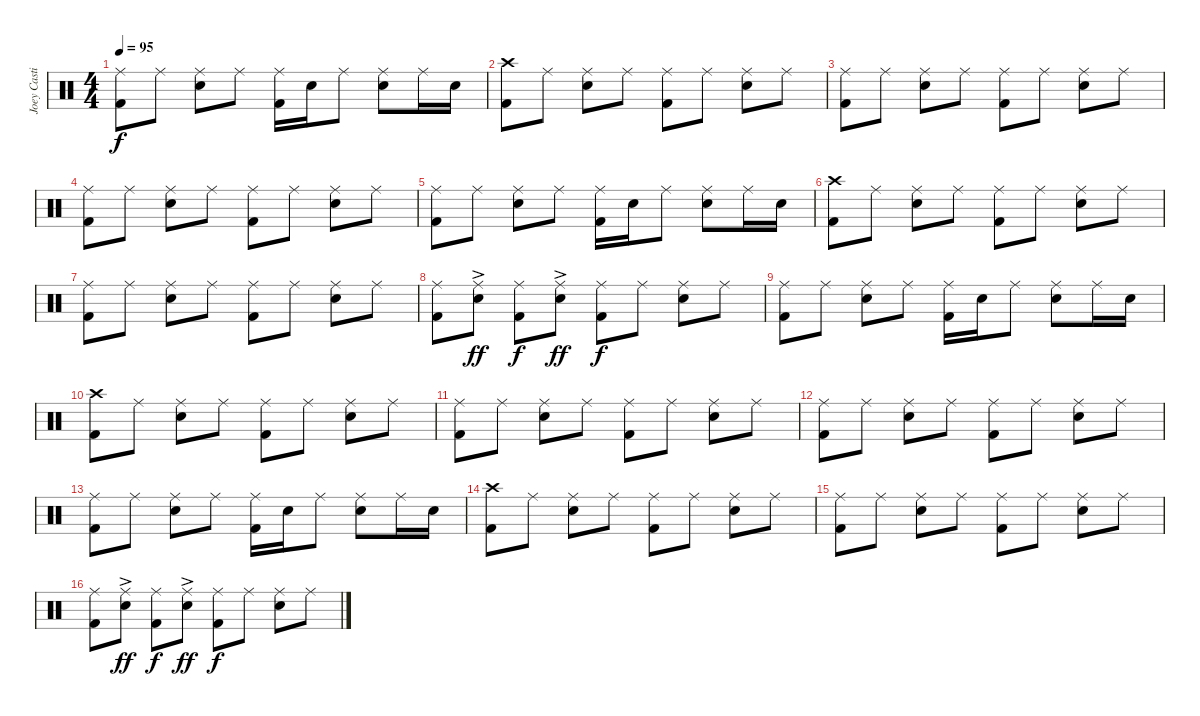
\track ("Joey Castillo" "Joey Casti") {instrument percussion}
\staff {score}
\articulation defaults
\ts (4 4)
\tempo 95
\clef neutral
\ks c
("Ride (middle)" "Kick (hit) 2").8{dy f} "Ride (middle)".8 ("Ride (middle)" "Snare (hit) 2").8 "Ride (middle)".8 ("Ride (middle)" "Kick (hit) 2").16 "Snare (hit) 2".16 "Ride (middle)".8 ("Ride (middle)" "Snare (hit) 2").8 "Ride (middle)".16 "Snare (hit) 2".16 |
("Crash high (hit)" "Kick (hit) 2").8 "Ride (middle)".8 ("Ride (middle)" "Snare (hit) 2").8 "Ride (middle)".8 ("Ride (middle)" "Kick (hit) 2").8 "Ride (middle)".8 ("Ride (middle)" "Snare (hit) 2").8 "Ride (middle)".8 |
("Ride (middle)" "Kick (hit) 2").8 "Ride (middle)".8 ("Ride (middle)" "Snare (hit) 2").8 "Ride (middle)".8 ("Ride (middle)" "Kick (hit) 2").8 "Ride (middle)".8 ("Ride (middle)" "Snare (hit) 2").8 "Ride (middle)".8 |
("Ride (middle)" "Kick (hit) 2").8 "Ride (middle)".8 ("Ride (middle)" "Snare (hit) 2").8 "Ride (middle)".8 ("Ride (middle)" "Kick (hit) 2").8 "Ride (middle)".8 ("Ride (middle)" "Snare (hit) 2").8 "Ride (middle)".8 |
("Ride (middle)" "Kick (hit) 2").8 "Ride (middle)".8 ("Ride (middle)" "Snare (hit) 2").8 "Ride (middle)".8 ("Ride (middle)" "Kick (hit) 2").16 "Snare (hit) 2".16 "Ride (middle)".8 ("Ride (middle)" "Snare (hit) 2").8 "Ride (middle)".16 "Snare (hit) 2".16 |
("Crash high (hit)" "Kick (hit) 2").8 "Ride (middle)".8 ("Ride (middle)" "Snare (hit) 2").8 "Ride (middle)".8 ("Ride (middle)" "Kick (hit) 2").8 "Ride (middle)".8 ("Ride (middle)" "Snare (hit) 2").8 "Ride (middle)".8 |
("Ride (middle)" "Kick (hit) 2").8 "Ride (middle)".8 ("Ride (middle)" "Snare (hit) 2").8 "Ride (middle)".8 ("Ride (middle)" "Kick (hit) 2").8 "Ride (middle)".8 ("Ride (middle)" "Snare (hit) 2").8 "Ride (middle)".8 |
("Ride (middle)" "Kick (hit) 2").8 ("Ride (middle)" "Snare (hit) 2"{ac}).8{dy ff} ("Ride (middle)" "Kick (hit) 2").8{dy f} ("Ride (middle)" "Snare (hit) 2"{ac}).8{dy ff} ("Ride (middle)" "Kick (hit) 2").8{dy f} "Ride (middle)".8 ("Ride (middle)" "Snare (hit) 2").8 "Ride (middle)".8 |
("Ride (middle)" "Kick (hit) 2").8 "Ride (middle)".8 ("Ride (middle)" "Snare (hit) 2").8 "Ride (middle)".8 ("Ride (middle)" "Kick (hit) 2").16 "Snare (hit) 2".16 "Ride (middle)".8 ("Ride (middle)" "Snare (hit) 2").8 "Ride (middle)".16 "Snare (hit) 2".16 |
("Crash high (hit)" "Kick (hit) 2").8 "Ride (middle)".8 ("Ride (middle)" "Snare (hit) 2").8 "Ride (middle)".8 ("Ride (middle)" "Kick (hit) 2").8 "Ride (middle)".8 ("Ride (middle)" "Snare (hit) 2").8 "Ride (middle)".8 |
("Ride (middle)" "Kick (hit) 2").8 "Ride (middle)".8 ("Ride (middle)" "Snare (hit) 2").8 "Ride (middle)".8 ("Ride (middle)" "Kick (hit) 2").8 "Ride (middle)".8 ("Ride (middle)" "Snare (hit) 2").8 "Ride (middle)".8 |
("Ride (middle)" "Kick (hit) 2").8 "Ride (middle)".8 ("Ride (middle)" "Snare (hit) 2").8 "Ride (middle)".8 ("Ride (middle)" "Kick (hit) 2").8 "Ride (middle)".8 ("Ride (middle)" "Snare (hit) 2").8 "Ride (middle)".8 |
("Ride (middle)" "Kick (hit) 2").8 "Ride (middle)".8 ("Ride (middle)" "Snare (hit) 2").8 "Ride (middle)".8 ("Ride (middle)" "Kick (hit) 2").16 "Snare (hit) 2".16 "Ride (middle)".8 ("Ride (middle)" "Snare (hit) 2").8 "Ride (middle)".16 "Snare (hit) 2".16 |
("Crash high (hit)" "Kick (hit) 2").8 "Ride (middle)".8 ("Ride (middle)" "Snare (hit) 2").8 "Ride (middle)".8 ("Ride (middle)" "Kick (hit) 2").8 "Ride (middle)".8 ("Ride (middle)" "Snare (hit) 2").8 "Ride (middle)".8 |
("Ride (middle)" "Kick (hit) 2").8 "Ride (middle)".8 ("Ride (middle)" "Snare (hit) 2").8 "Ride (middle)".8 ("Ride (middle)" "Kick (hit) 2").8 "Ride (middle)".8 ("Ride (middle)" "Snare (hit) 2").8 "Ride (middle)".8 |
("Ride (middle)" "Kick (hit) 2").8 ("Ride (middle)" "Snare (hit) 2"{ac}).8{dy ff} ("Ride (middle)" "Kick (hit) 2").8{dy f} ("Ride (middle)" "Snare (hit) 2"{ac}).8{dy ff} ("Ride (middle)" "Kick (hit) 2").8{dy f} "Ride (middle)".8 ("Ride (middle)" "Snare (hit) 2").8 "Ride (middle)".8
